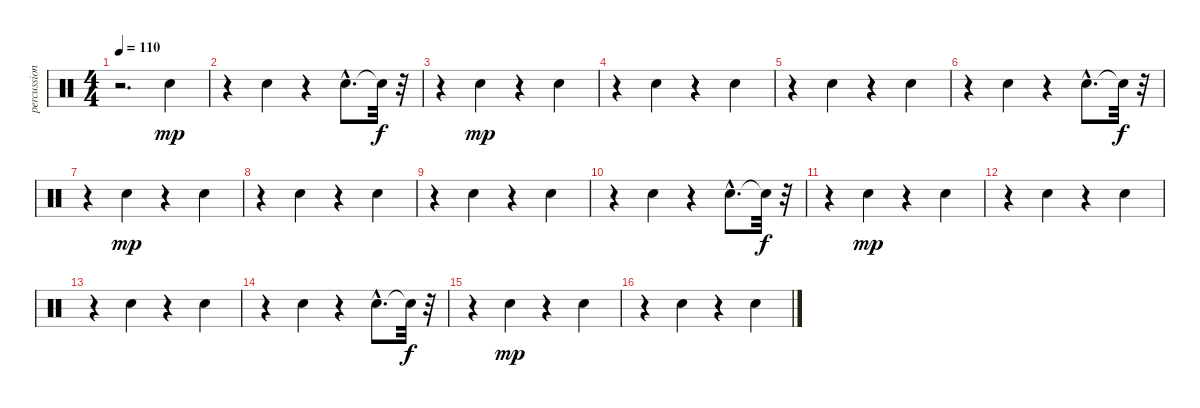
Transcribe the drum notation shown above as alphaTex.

\track ("percussions 3" "percussion") {instrument percussion}
\staff {score}
\articulation defaults
\ts (4 4)
\tempo 110
\clef neutral
\ks c
r.2{d dy f} "Electric Snare (hit)".4{dy mp} |
r.4 "Electric Snare (hit)".4 r.4 "Electric Snare (hit)"{hac}.8{d} "Snare (hit)"{t}.32{dy f} r.32 |
r.4 "Electric Snare (hit)".4{dy mp} r.4 "Electric Snare (hit)".4 |
r.4 "Electric Snare (hit)".4 r.4 "Electric Snare (hit)".4 |
r.4 "Electric Snare (hit)".4 r.4 "Electric Snare (hit)".4 |
r.4 "Electric Snare (hit)".4 r.4 "Electric Snare (hit)"{hac}.8{d} "Snare (hit)"{t}.32{dy f} r.32 |
r.4 "Electric Snare (hit)".4{dy mp} r.4 "Electric Snare (hit)".4 |
r.4 "Electric Snare (hit)".4 r.4 "Electric Snare (hit)".4 |
r.4 "Electric Snare (hit)".4 r.4 "Electric Snare (hit)".4 |
r.4 "Electric Snare (hit)".4 r.4 "Electric Snare (hit)"{hac}.8{d} "Snare (hit)"{t}.32{dy f} r.32 |
r.4 "Electric Snare (hit)".4{dy mp} r.4 "Electric Snare (hit)".4 |
r.4 "Electric Snare (hit)".4 r.4 "Electric Snare (hit)".4 |
r.4 "Electric Snare (hit)".4 r.4 "Electric Snare (hit)".4 |
r.4 "Electric Snare (hit)".4 r.4 "Electric Snare (hit)"{hac}.8{d} "Snare (hit)"{t}.32{dy f} r.32 |
r.4 "Electric Snare (hit)".4{dy mp} r.4 "Electric Snare (hit)".4 |
r.4 "Electric Snare (hit)".4 r.4 "Electric Snare (hit)".4
